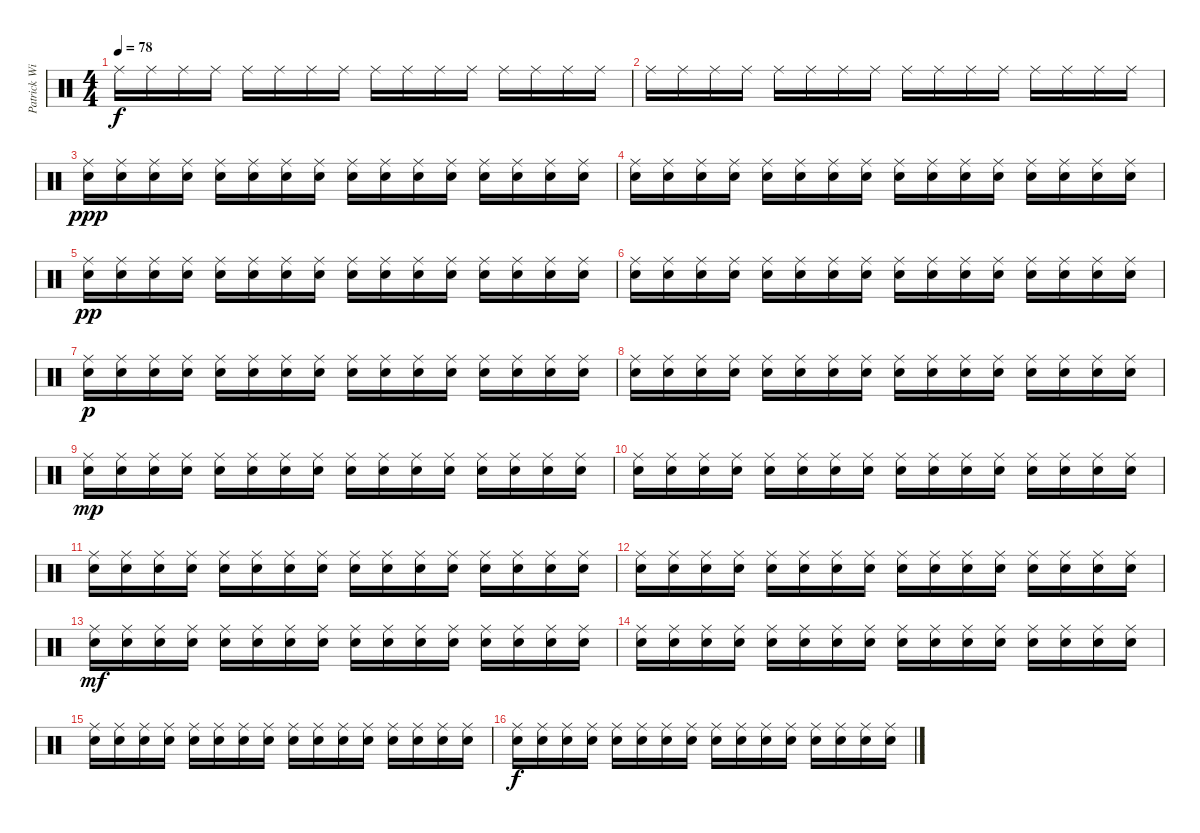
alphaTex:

\track ("Patrick Wilson" "Patrick Wi") {instrument percussion}
\staff {score}
\articulation defaults
\ts (4 4)
\tempo 78
\clef neutral
\ks c "Ride (middle)".16{dy f} "Ride (middle)".16 "Ride (middle)".16 "Ride (middle)".16 "Ride (middle)".16 "Ride (middle)".16 "Ride (middle)".16 "Ride (middle)".16 "Ride (middle)".16 "Ride (middle)".16 "Ride (middle)".16 "Ride (middle)".16 "Ride (middle)".16 "Ride (middle)".16 "Ride (middle)".16 "Ride (middle)".16
|
"Ride (middle)".16 "Ride (middle)".16 "Ride (middle)".16 "Ride (middle)".16 "Ride (middle)".16 "Ride (middle)".16 "Ride (middle)".16 "Ride (middle)".16 "Ride (middle)".16 "Ride (middle)".16 "Ride (middle)".16 "Ride (middle)".16 "Ride (middle)".16 "Ride (middle)".16 "Ride (middle)".16 "Ride (middle)".16 |
("Ride (middle)" "Snare (hit) 2").16{dy ppp} ("Ride (middle)" "Snare (hit) 2").16 ("Ride (middle)" "Snare (hit) 2").16 ("Ride (middle)" "Snare (hit) 2").16 ("Ride (middle)" "Snare (hit) 2").16 ("Ride (middle)" "Snare (hit) 2").16 ("Ride (middle)" "Snare (hit) 2").16 ("Ride (middle)" "Snare (hit) 2").16 ("Ride (middle)" "Snare (hit) 2").16 ("Ride (middle)" "Snare (hit) 2").16 ("Ride (middle)" "Snare (hit) 2").16 ("Ride (middle)" "Snare (hit) 2").16 ("Ride (middle)" "Snare (hit) 2").16 ("Ride (middle)" "Snare (hit) 2").16 ("Ride (middle)" "Snare (hit) 2").16 ("Ride (middle)" "Snare (hit) 2").16 |
("Ride (middle)" "Snare (hit) 2").16 ("Ride (middle)" "Snare (hit) 2").16 ("Ride (middle)" "Snare (hit) 2").16 ("Ride (middle)" "Snare (hit) 2").16 ("Ride (middle)" "Snare (hit) 2").16 ("Ride (middle)" "Snare (hit) 2").16 ("Ride (middle)" "Snare (hit) 2").16 ("Ride (middle)" "Snare (hit) 2").16 ("Ride (middle)" "Snare (hit) 2").16 ("Ride (middle)" "Snare (hit) 2").16 ("Ride (middle)" "Snare (hit) 2").16 ("Ride (middle)" "Snare (hit) 2").16 ("Ride (middle)" "Snare (hit) 2").16 ("Ride (middle)" "Snare (hit) 2").16 ("Ride (middle)" "Snare (hit) 2").16 ("Ride (middle)" "Snare (hit) 2").16 |
("Ride (middle)" "Snare (hit) 2").16{dy pp} ("Ride (middle)" "Snare (hit) 2").16 ("Ride (middle)" "Snare (hit) 2").16 ("Ride (middle)" "Snare (hit) 2").16 ("Ride (middle)" "Snare (hit) 2").16 ("Ride (middle)" "Snare (hit) 2").16 ("Ride (middle)" "Snare (hit) 2").16 ("Ride (middle)" "Snare (hit) 2").16 ("Ride (middle)" "Snare (hit) 2").16 ("Ride (middle)" "Snare (hit) 2").16 ("Ride (middle)" "Snare (hit) 2").16 ("Ride (middle)" "Snare (hit) 2").16 ("Ride (middle)" "Snare (hit) 2").16 ("Ride (middle)" "Snare (hit) 2").16 ("Ride (middle)" "Snare (hit) 2").16 ("Ride (middle)" "Snare (hit) 2").16 |
("Ride (middle)" "Snare (hit) 2").16 ("Ride (middle)" "Snare (hit) 2").16 ("Ride (middle)" "Snare (hit) 2").16 ("Ride (middle)" "Snare (hit) 2").16 ("Ride (middle)" "Snare (hit) 2").16 ("Ride (middle)" "Snare (hit) 2").16 ("Ride (middle)" "Snare (hit) 2").16 ("Ride (middle)" "Snare (hit) 2").16 ("Ride (middle)" "Snare (hit) 2").16 ("Ride (middle)" "Snare (hit) 2").16 ("Ride (middle)" "Snare (hit) 2").16 ("Ride (middle)" "Snare (hit) 2").16 ("Ride (middle)" "Snare (hit) 2").16 ("Ride (middle)" "Snare (hit) 2").16 ("Ride (middle)" "Snare (hit) 2").16 ("Ride (middle)" "Snare (hit) 2").16 |
("Ride (middle)" "Snare (hit) 2").16{dy p} ("Ride (middle)" "Snare (hit) 2").16 ("Ride (middle)" "Snare (hit) 2").16 ("Ride (middle)" "Snare (hit) 2").16 ("Ride (middle)" "Snare (hit) 2").16 ("Ride (middle)" "Snare (hit) 2").16 ("Ride (middle)" "Snare (hit) 2").16 ("Ride (middle)" "Snare (hit) 2").16 ("Ride (middle)" "Snare (hit) 2").16 ("Ride (middle)" "Snare (hit) 2").16 ("Ride (middle)" "Snare (hit) 2").16 ("Ride (middle)" "Snare (hit) 2").16 ("Ride (middle)" "Snare (hit) 2").16 ("Ride (middle)" "Snare (hit) 2").16 ("Ride (middle)" "Snare (hit) 2").16 ("Ride (middle)" "Snare (hit) 2").16 |
("Ride (middle)" "Snare (hit) 2").16 ("Ride (middle)" "Snare (hit) 2").16 ("Ride (middle)" "Snare (hit) 2").16 ("Ride (middle)" "Snare (hit) 2").16 ("Ride (middle)" "Snare (hit) 2").16 ("Ride (middle)" "Snare (hit) 2").16 ("Ride (middle)" "Snare (hit) 2").16 ("Ride (middle)" "Snare (hit) 2").16 ("Ride (middle)" "Snare (hit) 2").16 ("Ride (middle)" "Snare (hit) 2").16 ("Ride (middle)" "Snare (hit) 2").16 ("Ride (middle)" "Snare (hit) 2").16 ("Ride (middle)" "Snare (hit) 2").16 ("Ride (middle)" "Snare (hit) 2").16 ("Ride (middle)" "Snare (hit) 2").16 ("Ride (middle)" "Snare (hit) 2").16 |
("Ride (middle)" "Snare (hit) 2").16{dy mp} ("Ride (middle)" "Snare (hit) 2").16 ("Ride (middle)" "Snare (hit) 2").16 ("Ride (middle)" "Snare (hit) 2").16 ("Ride (middle)" "Snare (hit) 2").16 ("Ride (middle)" "Snare (hit) 2").16 ("Ride (middle)" "Snare (hit) 2").16 ("Ride (middle)" "Snare (hit) 2").16 ("Ride (middle)" "Snare (hit) 2").16 ("Ride (middle)" "Snare (hit) 2").16 ("Ride (middle)" "Snare (hit) 2").16 ("Ride (middle)" "Snare (hit) 2").16 ("Ride (middle)" "Snare (hit) 2").16 ("Ride (middle)" "Snare (hit) 2").16 ("Ride (middle)" "Snare (hit) 2").16 ("Ride (middle)" "Snare (hit) 2").16 |
("Ride (middle)" "Snare (hit) 2").16 ("Ride (middle)" "Snare (hit) 2").16 ("Ride (middle)" "Snare (hit) 2").16 ("Ride (middle)" "Snare (hit) 2").16 ("Ride (middle)" "Snare (hit) 2").16 ("Ride (middle)" "Snare (hit) 2").16 ("Ride (middle)" "Snare (hit) 2").16 ("Ride (middle)" "Snare (hit) 2").16 ("Ride (middle)" "Snare (hit) 2").16 ("Ride (middle)" "Snare (hit) 2").16 ("Ride (middle)" "Snare (hit) 2").16 ("Ride (middle)" "Snare (hit) 2").16 ("Ride (middle)" "Snare (hit) 2").16 ("Ride (middle)" "Snare (hit) 2").16 ("Ride (middle)" "Snare (hit) 2").16 ("Ride (middle)" "Snare (hit) 2").16 |
("Ride (middle)" "Snare (hit) 2").16 ("Ride (middle)" "Snare (hit) 2").16 ("Ride (middle)" "Snare (hit) 2").16 ("Ride (middle)" "Snare (hit) 2").16 ("Ride (middle)" "Snare (hit) 2").16 ("Ride (middle)" "Snare (hit) 2").16 ("Ride (middle)" "Snare (hit) 2").16 ("Ride (middle)" "Snare (hit) 2").16 ("Ride (middle)" "Snare (hit) 2").16 ("Ride (middle)" "Snare (hit) 2").16 ("Ride (middle)" "Snare (hit) 2").16 ("Ride (middle)" "Snare (hit) 2").16 ("Ride (middle)" "Snare (hit) 2").16 ("Ride (middle)" "Snare (hit) 2").16 ("Ride (middle)" "Snare (hit) 2").16 ("Ride (middle)" "Snare (hit) 2").16 |
("Ride (middle)" "Snare (hit) 2").16 ("Ride (middle)" "Snare (hit) 2").16 ("Ride (middle)" "Snare (hit) 2").16 ("Ride (middle)" "Snare (hit) 2").16 ("Ride (middle)" "Snare (hit) 2").16 ("Ride (middle)" "Snare (hit) 2").16 ("Ride (middle)" "Snare (hit) 2").16 ("Ride (middle)" "Snare (hit) 2").16 ("Ride (middle)" "Snare (hit) 2").16 ("Ride (middle)" "Snare (hit) 2").16 ("Ride (middle)" "Snare (hit) 2").16 ("Ride (middle)" "Snare (hit) 2").16 ("Ride (middle)" "Snare (hit) 2").16 ("Ride (middle)" "Snare (hit) 2").16 ("Ride (middle)" "Snare (hit) 2").16 ("Ride (middle)" "Snare (hit) 2").16 |
("Ride (middle)" "Snare (hit) 2").16{dy mf} ("Ride (middle)" "Snare (hit) 2").16 ("Ride (middle)" "Snare (hit) 2").16 ("Ride (middle)" "Snare (hit) 2").16 ("Ride (middle)" "Snare (hit) 2").16 ("Ride (middle)" "Snare (hit) 2").16 ("Ride (middle)" "Snare (hit) 2").16 ("Ride (middle)" "Snare (hit) 2").16 ("Ride (middle)" "Snare (hit) 2").16 ("Ride (middle)" "Snare (hit) 2").16 ("Ride (middle)" "Snare (hit) 2").16 ("Ride (middle)" "Snare (hit) 2").16 ("Ride (middle)" "Snare (hit) 2").16 ("Ride (middle)" "Snare (hit) 2").16 ("Ride (middle)" "Snare (hit) 2").16 ("Ride (middle)" "Snare (hit) 2").16 |
("Ride (middle)" "Snare (hit) 2").16 ("Ride (middle)" "Snare (hit) 2").16 ("Ride (middle)" "Snare (hit) 2").16 ("Ride (middle)" "Snare (hit) 2").16 ("Ride (middle)" "Snare (hit) 2").16 ("Ride (middle)" "Snare (hit) 2").16 ("Ride (middle)" "Snare (hit) 2").16 ("Ride (middle)" "Snare (hit) 2").16 ("Ride (middle)" "Snare (hit) 2").16 ("Ride (middle)" "Snare (hit) 2").16 ("Ride (middle)" "Snare (hit) 2").16 ("Ride (middle)" "Snare (hit) 2").16 ("Ride (middle)" "Snare (hit) 2").16 ("Ride (middle)" "Snare (hit) 2").16 ("Ride (middle)" "Snare (hit) 2").16 ("Ride (middle)" "Snare (hit) 2").16 |
("Ride (middle)" "Snare (hit) 2").16 ("Ride (middle)" "Snare (hit) 2").16 ("Ride (middle)" "Snare (hit) 2").16 ("Ride (middle)" "Snare (hit) 2").16 ("Ride (middle)" "Snare (hit) 2").16 ("Ride (middle)" "Snare (hit) 2").16 ("Ride (middle)" "Snare (hit) 2").16 ("Ride (middle)" "Snare (hit) 2").16 ("Ride (middle)" "Snare (hit) 2").16 ("Ride (middle)" "Snare (hit) 2").16 ("Ride (middle)" "Snare (hit) 2").16 ("Ride (middle)" "Snare (hit) 2").16 ("Ride (middle)" "Snare (hit) 2").16 ("Ride (middle)" "Snare (hit) 2").16 ("Ride (middle)" "Snare (hit) 2").16 ("Ride (middle)" "Snare (hit) 2").16 |
("Ride (middle)" "Snare (hit) 2").16{dy f} ("Ride (middle)" "Snare (hit) 2").16 ("Ride (middle)" "Snare (hit) 2").16 ("Ride (middle)" "Snare (hit) 2").16 ("Ride (middle)" "Snare (hit) 2").16 ("Ride (middle)" "Snare (hit) 2").16 ("Ride (middle)" "Snare (hit) 2").16 ("Ride (middle)" "Snare (hit) 2").16 ("Ride (middle)" "Snare (hit) 2").16 ("Ride (middle)" "Snare (hit) 2").16 ("Ride (middle)" "Snare (hit) 2").16 ("Ride (middle)" "Snare (hit) 2").16 ("Ride (middle)" "Snare (hit) 2").16 ("Ride (middle)" "Snare (hit) 2").16 ("Ride (middle)" "Snare (hit) 2").16 ("Ride (middle)" "Snare (hit) 2").16
